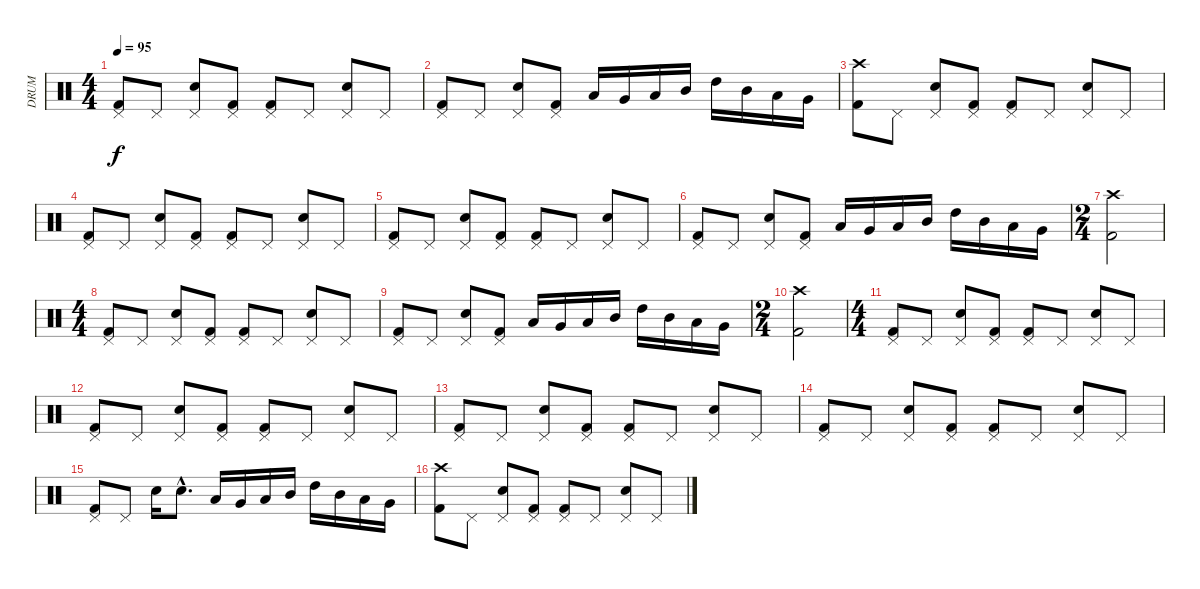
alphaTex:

\track ("DRUM" "DRUM") {instrument percussion}
\staff {score}
\articulation defaults
\ts (4 4)
\tempo 95
\clef neutral
\ks c
("Kick (hit) 2" "Pedal Hi-Hat (hit)").8{dy f} "Pedal Hi-Hat (hit)".8 ("Electric Snare (hit)" "Pedal Hi-Hat (hit)").8 ("Kick (hit) 2" "Pedal Hi-Hat (hit)").8 ("Kick (hit) 2" "Pedal Hi-Hat (hit)").8 "Pedal Hi-Hat (hit)".8 ("Electric Snare (hit)" "Pedal Hi-Hat (hit)").8 "Pedal Hi-Hat (hit)".8 |
("Kick (hit) 2" "Pedal Hi-Hat (hit)").8 "Pedal Hi-Hat (hit)".8 ("Electric Snare (hit)" "Pedal Hi-Hat (hit)").8 ("Kick (hit) 2" "Pedal Hi-Hat (hit)").8 "Low Floor Tom (hit)".16 "Very Low Tom (hit)".16 "Low Tom (hit)".16 "Mid Tom (hit)".16 "High Tom (hit)".16 "Mid Tom (hit)".16 "Low Tom (hit)".16 "Very Low Tom (hit)".16 |
("Kick (hit) 2" "Crash high (hit)").8 "Pedal Hi-Hat (hit)".8 ("Electric Snare (hit)" "Pedal Hi-Hat (hit)").8 ("Kick (hit) 2" "Pedal Hi-Hat (hit)").8 ("Kick (hit) 2" "Pedal Hi-Hat (hit)").8 "Pedal Hi-Hat (hit)".8 ("Electric Snare (hit)" "Pedal Hi-Hat (hit)").8 "Pedal Hi-Hat (hit)".8 |
("Kick (hit) 2" "Pedal Hi-Hat (hit)").8 "Pedal Hi-Hat (hit)".8 ("Electric Snare (hit)" "Pedal Hi-Hat (hit)").8 ("Kick (hit) 2" "Pedal Hi-Hat (hit)").8 ("Kick (hit) 2" "Pedal Hi-Hat (hit)").8 "Pedal Hi-Hat (hit)".8 ("Electric Snare (hit)" "Pedal Hi-Hat (hit)").8 "Pedal Hi-Hat (hit)".8 |
("Kick (hit) 2" "Pedal Hi-Hat (hit)").8 "Pedal Hi-Hat (hit)".8 ("Electric Snare (hit)" "Pedal Hi-Hat (hit)").8 ("Kick (hit) 2" "Pedal Hi-Hat (hit)").8 ("Kick (hit) 2" "Pedal Hi-Hat (hit)").8 "Pedal Hi-Hat (hit)".8 ("Electric Snare (hit)" "Pedal Hi-Hat (hit)").8 "Pedal Hi-Hat (hit)".8 |
("Kick (hit) 2" "Pedal Hi-Hat (hit)").8 "Pedal Hi-Hat (hit)".8 ("Electric Snare (hit)" "Pedal Hi-Hat (hit)").8 ("Kick (hit) 2" "Pedal Hi-Hat (hit)").8 "Low Floor Tom (hit)".16 "Very Low Tom (hit)".16 "Low Tom (hit)".16 "Mid Tom (hit)".16 "High Tom (hit)".16 "Mid Tom (hit)".16 "Low Tom (hit)".16 "Very Low Tom (hit)".16 |
\ts (2 4)
("Kick (hit) 2" "Crash high (hit)").2 |
\ts (4 4)
("Kick (hit) 2" "Pedal Hi-Hat (hit)").8 "Pedal Hi-Hat (hit)".8 ("Electric Snare (hit)" "Pedal Hi-Hat (hit)").8 ("Kick (hit) 2" "Pedal Hi-Hat (hit)").8 ("Kick (hit) 2" "Pedal Hi-Hat (hit)").8 "Pedal Hi-Hat (hit)".8 ("Electric Snare (hit)" "Pedal Hi-Hat (hit)").8 "Pedal Hi-Hat (hit)".8 |
("Kick (hit) 2" "Pedal Hi-Hat (hit)").8 "Pedal Hi-Hat (hit)".8 ("Electric Snare (hit)" "Pedal Hi-Hat (hit)").8 ("Kick (hit) 2" "Pedal Hi-Hat (hit)").8 "Low Floor Tom (hit)".16 "Very Low Tom (hit)".16 "Low Tom (hit)".16 "Mid Tom (hit)".16 "High Tom (hit)".16 "Mid Tom (hit)".16 "Low Tom (hit)".16 "Very Low Tom (hit)".16 |
\ts (2 4)
("Kick (hit) 2" "Crash high (hit)").2 |
\ts (4 4)
("Kick (hit) 2" "Pedal Hi-Hat (hit)").8 "Pedal Hi-Hat (hit)".8 ("Electric Snare (hit)" "Pedal Hi-Hat (hit)").8 ("Kick (hit) 2" "Pedal Hi-Hat (hit)").8 ("Kick (hit) 2" "Pedal Hi-Hat (hit)").8 "Pedal Hi-Hat (hit)".8 ("Electric Snare (hit)" "Pedal Hi-Hat (hit)").8 "Pedal Hi-Hat (hit)".8 |
("Kick (hit) 2" "Pedal Hi-Hat (hit)").8 "Pedal Hi-Hat (hit)".8 ("Electric Snare (hit)" "Pedal Hi-Hat (hit)").8 ("Kick (hit) 2" "Pedal Hi-Hat (hit)").8 ("Kick (hit) 2" "Pedal Hi-Hat (hit)").8 "Pedal Hi-Hat (hit)".8 ("Electric Snare (hit)" "Pedal Hi-Hat (hit)").8 "Pedal Hi-Hat (hit)".8 |
("Kick (hit) 2" "Pedal Hi-Hat (hit)").8 "Pedal Hi-Hat (hit)".8 ("Electric Snare (hit)" "Pedal Hi-Hat (hit)").8 ("Kick (hit) 2" "Pedal Hi-Hat (hit)").8 ("Kick (hit) 2" "Pedal Hi-Hat (hit)").8 "Pedal Hi-Hat (hit)".8 ("Electric Snare (hit)" "Pedal Hi-Hat (hit)").8 "Pedal Hi-Hat (hit)".8 |
("Kick (hit) 2" "Pedal Hi-Hat (hit)").8 "Pedal Hi-Hat (hit)".8 ("Electric Snare (hit)" "Pedal Hi-Hat (hit)").8 ("Kick (hit) 2" "Pedal Hi-Hat (hit)").8 ("Kick (hit) 2" "Pedal Hi-Hat (hit)").8 "Pedal Hi-Hat (hit)".8 ("Electric Snare (hit)" "Pedal Hi-Hat (hit)").8 "Pedal Hi-Hat (hit)".8 |
("Kick (hit) 2" "Pedal Hi-Hat (hit)").8 "Pedal Hi-Hat (hit)".8 "Electric Snare (hit)".16 "Electric Snare (hit)"{hac}.8{d} "Low Floor Tom (hit)".16 "Very Low Tom (hit)".16 "Low Tom (hit)".16 "Mid Tom (hit)".16 "High Tom (hit)".16 "Mid Tom (hit)".16 "Low Tom (hit)".16 "Very Low Tom (hit)".16 |
("Kick (hit) 2" "Crash high (hit)").8 "Pedal Hi-Hat (hit)".8 ("Electric Snare (hit)" "Pedal Hi-Hat (hit)").8 ("Kick (hit) 2" "Pedal Hi-Hat (hit)").8 ("Kick (hit) 2" "Pedal Hi-Hat (hit)").8 "Pedal Hi-Hat (hit)".8 ("Electric Snare (hit)" "Pedal Hi-Hat (hit)").8 "Pedal Hi-Hat (hit)".8
